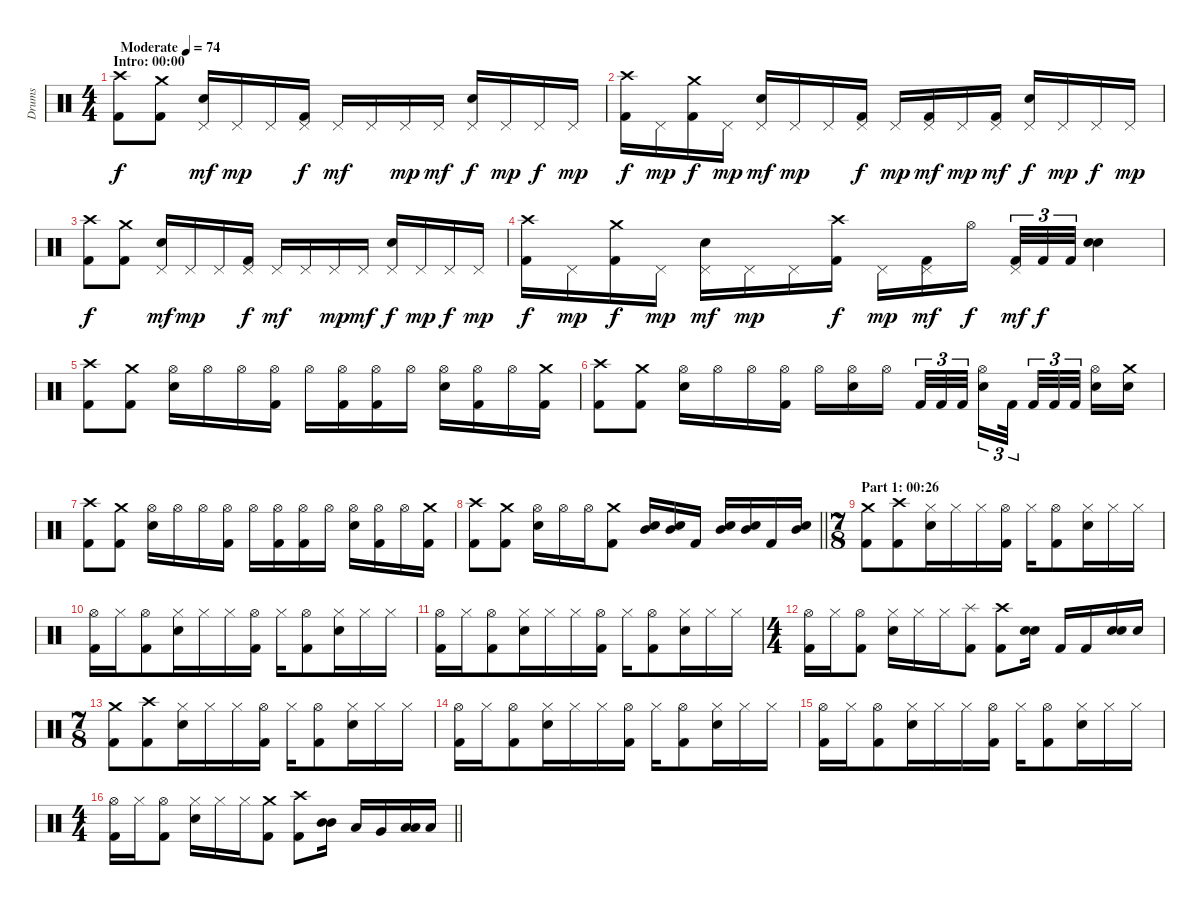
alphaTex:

\track ("Drums" "Drums") {instrument percussion}
\staff {score}
\articulation defaults
\ts (4 4)
\section ("" "Intro: 00:00")
\tempo (74 "Moderate")
\clef neutral
\ks c
("Crash high (hit)" "Kick (hit) 2").8{dy f} ("Crash medium (hit)" "Kick (hit) 2").8 ("Pedal Hi-Hat (hit)" "Electric Snare (hit)").16{dy mf} "Pedal Hi-Hat (hit)".16{dy mp} "Pedal Hi-Hat (hit)".16 ("Pedal Hi-Hat (hit)" "Kick (hit) 2").16{dy f} "Pedal Hi-Hat (hit)".16{dy mf} "Pedal Hi-Hat (hit)".16 "Pedal Hi-Hat (hit)".16{dy mp} "Pedal Hi-Hat (hit)".16{dy mf} ("Pedal Hi-Hat (hit)" "Electric Snare (hit)").16{dy f} "Pedal Hi-Hat (hit)".16{dy mp} "Pedal Hi-Hat (hit)".16{dy f} "Pedal Hi-Hat (hit)".16{dy mp} |
("Crash high (hit)" "Kick (hit) 2").16{dy f} "Pedal Hi-Hat (hit)".16{dy mp} ("Crash medium (hit)" "Kick (hit) 2").16{dy f} "Pedal Hi-Hat (hit)".16{dy mp} ("Pedal Hi-Hat (hit)" "Electric Snare (hit)").16{dy mf} "Pedal Hi-Hat (hit)".16{dy mp} "Pedal Hi-Hat (hit)".16 ("Pedal Hi-Hat (hit)" "Kick (hit) 2").16{dy f} "Pedal Hi-Hat (hit)".16{dy mp} ("Pedal Hi-Hat (hit)" "Kick (hit) 2").16{dy mf} "Pedal Hi-Hat (hit)".16{dy mp} ("Pedal Hi-Hat (hit)" "Kick (hit) 2").16{dy mf} ("Pedal Hi-Hat (hit)" "Electric Snare (hit)").16{dy f} "Pedal Hi-Hat (hit)".16{dy mp} "Pedal Hi-Hat (hit)".16{dy f} "Pedal Hi-Hat (hit)".16{dy mp} |
("Crash high (hit)" "Kick (hit) 2").8{dy f} ("Crash medium (hit)" "Kick (hit) 2").8 ("Pedal Hi-Hat (hit)" "Electric Snare (hit)").16{dy mf} "Pedal Hi-Hat (hit)".16{dy mp} "Pedal Hi-Hat (hit)".16 ("Pedal Hi-Hat (hit)" "Kick (hit) 2").16{dy f} "Pedal Hi-Hat (hit)".16{dy mf} "Pedal Hi-Hat (hit)".16 "Pedal Hi-Hat (hit)".16{dy mp} "Pedal Hi-Hat (hit)".16{dy mf} ("Pedal Hi-Hat (hit)" "Electric Snare (hit)").16{dy f} "Pedal Hi-Hat (hit)".16{dy mp} "Pedal Hi-Hat (hit)".16{dy f} "Pedal Hi-Hat (hit)".16{dy mp} |
("Crash high (hit)" "Kick (hit) 2").16{dy f} "Pedal Hi-Hat (hit)".16{dy mp} ("Crash medium (hit)" "Kick (hit) 2").16{dy f} "Pedal Hi-Hat (hit)".16{dy mp} ("Pedal Hi-Hat (hit)" "Electric Snare (hit)").16{dy mf} "Pedal Hi-Hat (hit)".16{dy mp} "Pedal Hi-Hat (hit)".16 ("Crash high (hit)" "Kick (hit) 2").16{dy f} "Pedal Hi-Hat (hit)".16{dy mp} ("Pedal Hi-Hat (hit)" "Kick (hit) 2").16{dy mf} "Hi-Hat (open)".16{dy f beam splitsecondary} ("Pedal Hi-Hat (hit)" "Kick (hit) 2").32{tu (3 2) dy mf} "Kick (hit) 2".32{tu (3 2) dy f} "Kick (hit) 2".32{tu (3 2)} ("Electric Snare (hit)" "Electric Snare (hit)").4{bd 120} |
("Crash high (hit)" "Kick (hit) 2").8 ("Crash medium (hit)" "Kick (hit) 2").8 ("Hi-Hat (open)" "Electric Snare (hit)").16 "Hi-Hat (open)".16 "Hi-Hat (open)".16 ("Hi-Hat (open)" "Kick (hit) 2").16 "Hi-Hat (open)".16 ("Hi-Hat (open)" "Kick (hit) 2").16 ("Hi-Hat (open)" "Kick (hit) 2").16 "Hi-Hat (open)".16 ("Hi-Hat (open)" "Electric Snare (hit)").16 ("Hi-Hat (open)" "Kick (hit) 2").16 "Hi-Hat (open)".16 ("Crash medium (hit)" "Kick (hit) 2").16 |
("Crash high (hit)" "Kick (hit) 2").8 ("Crash medium (hit)" "Kick (hit) 2").8 ("Hi-Hat (open)" "Electric Snare (hit)").16 "Hi-Hat (open)".16 "Hi-Hat (open)".16 ("Hi-Hat (open)" "Kick (hit) 2").16 "Hi-Hat (open)".16 ("Hi-Hat (open)" "Electric Snare (hit)").16 "Hi-Hat (open)".16{beam splitsecondary} "Kick (hit) 2".32{tu (3 2)} "Kick (hit) 2".32{tu (3 2)} "Kick (hit) 2".32{tu (3 2)} ("Hi-Hat (open)" "Electric Snare (hit)").16{tu (3 2)} "Kick (hit) 2".32{tu (3 2) beam splitsecondary} "Kick (hit) 2".32{tu (3 2)} "Kick (hit) 2".32{tu (3 2)} "Kick (hit) 2".32{tu (3 2) beam splitsecondary} ("Hi-Hat (open)" "Electric Snare (hit)").16 ("Crash medium (hit)" "Electric Snare (hit)").16 |
("Crash high (hit)" "Kick (hit) 2").8 ("Crash medium (hit)" "Kick (hit) 2").8 ("Hi-Hat (open)" "Electric Snare (hit)").16 "Hi-Hat (open)".16 "Hi-Hat (open)".16 ("Hi-Hat (open)" "Kick (hit) 2").16 "Hi-Hat (open)".16 ("Hi-Hat (open)" "Kick (hit) 2").16 ("Hi-Hat (open)" "Kick (hit) 2").16 "Hi-Hat (open)".16 ("Hi-Hat (open)" "Electric Snare (hit)").16 ("Hi-Hat (open)" "Kick (hit) 2").16 "Hi-Hat (open)".16 ("Crash medium (hit)" "Kick (hit) 2").16 |
\barLineRight lightlight
("Crash high (hit)" "Kick (hit) 2").8 ("Crash medium (hit)" "Kick (hit) 2").8 ("Hi-Hat (open)" "Electric Snare (hit)").16 "Hi-Hat (open)".16 "Hi-Hat (open)".16 ("Crash medium (hit)" "Kick (hit) 2").8 ("Mid Tom (hit)" "Electric Snare (hit)").16 ("Mid Tom (hit)" "Electric Snare (hit)").16 "Kick (hit) 2".16 ("Mid Tom (hit)" "Electric Snare (hit)").16 ("Mid Tom (hit)" "Electric Snare (hit)").16 "Kick (hit) 2".16 ("Mid Tom (hit)" "Electric Snare (hit)").16 |
\ts (7 8)
\section ("" "Part 1: 00:26")
("Crash medium (hit)" "Kick (hit) 2").8 ("Crash high (hit)" "Kick (hit) 2").8 ("Hi-Hat (closed)" "Electric Snare (hit)").16 "Hi-Hat (closed)".16 "Hi-Hat (closed)".16 ("Hi-Hat (open)" "Kick (hit) 2").16 "Hi-Hat (closed)".16 ("Hi-Hat (open)" "Kick (hit) 2").8 ("Hi-Hat (closed)" "Electric Snare (hit)").16 "Hi-Hat (closed)".16 "Hi-Hat (closed)".16 |
("Hi-Hat (open)" "Kick (hit) 2").16 "Hi-Hat (closed)".16 ("Hi-Hat (open)" "Kick (hit) 2").8 ("Hi-Hat (closed)" "Electric Snare (hit)").16 "Hi-Hat (closed)".16 "Hi-Hat (closed)".16 ("Hi-Hat (open)" "Kick (hit) 2").16 "Hi-Hat (closed)".16 ("Hi-Hat (open)" "Kick (hit) 2").8 ("Hi-Hat (closed)" "Electric Snare (hit)").16 "Hi-Hat (closed)".16 "Hi-Hat (closed)".16 |
("Hi-Hat (open)" "Kick (hit) 2").16 "Hi-Hat (closed)".16 ("Hi-Hat (open)" "Kick (hit) 2").8 ("Hi-Hat (closed)" "Electric Snare (hit)").16 "Hi-Hat (closed)".16 "Hi-Hat (closed)".16 ("Hi-Hat (open)" "Kick (hit) 2").16 "Hi-Hat (closed)".16 ("Hi-Hat (open)" "Kick (hit) 2").8 ("Hi-Hat (closed)" "Electric Snare (hit)").16 "Hi-Hat (closed)".16 "Hi-Hat (closed)".16 |
\ts (4 4)
("Hi-Hat (open)" "Kick (hit) 2").16 "Hi-Hat (closed)".16 ("Hi-Hat (open)" "Kick (hit) 2").8 ("Hi-Hat (closed)" "Electric Snare (hit)").16 "Hi-Hat (closed)".16 "Hi-Hat (closed)".16 ("Splash (hit)" "Kick (hit) 2").8 ("Crash high (hit)" "Kick (hit) 2").8 ("Electric Snare (hit)" "Electric Snare (hit)").16{bd 120} "Kick (hit) 2".16 "Kick (hit) 2".16 ("Electric Snare (hit)" "Electric Snare (hit)").16{bd 120} "Electric Snare (hit)".16 |
\ts (7 8)
("Crash medium (hit)" "Kick (hit) 2").8 ("Crash high (hit)" "Kick (hit) 2").8 ("Hi-Hat (closed)" "Electric Snare (hit)").16 "Hi-Hat (closed)".16 "Hi-Hat (closed)".16 ("Hi-Hat (open)" "Kick (hit) 2").16 "Hi-Hat (closed)".16 ("Hi-Hat (open)" "Kick (hit) 2").8 ("Hi-Hat (closed)" "Electric Snare (hit)").16 "Hi-Hat (closed)".16 "Hi-Hat (closed)".16 |
("Hi-Hat (open)" "Kick (hit) 2").16 "Hi-Hat (closed)".16 ("Hi-Hat (open)" "Kick (hit) 2").8 ("Hi-Hat (closed)" "Electric Snare (hit)").16 "Hi-Hat (closed)".16 "Hi-Hat (closed)".16 ("Hi-Hat (open)" "Kick (hit) 2").16 "Hi-Hat (closed)".16 ("Hi-Hat (open)" "Kick (hit) 2").8 ("Hi-Hat (closed)" "Electric Snare (hit)").16 "Hi-Hat (closed)".16 "Hi-Hat (closed)".16 |
("Hi-Hat (open)" "Kick (hit) 2").16 "Hi-Hat (closed)".16 ("Hi-Hat (open)" "Kick (hit) 2").8 ("Hi-Hat (closed)" "Electric Snare (hit)").16 "Hi-Hat (closed)".16 "Hi-Hat (closed)".16 ("Hi-Hat (open)" "Kick (hit) 2").16 "Hi-Hat (closed)".16 ("Hi-Hat (open)" "Kick (hit) 2").8 ("Hi-Hat (closed)" "Electric Snare (hit)").16 "Hi-Hat (closed)".16 "Hi-Hat (closed)".16 |
\ts (4 4)
\barLineRight lightlight
("Hi-Hat (open)" "Kick (hit) 2").16 "Hi-Hat (closed)".16 ("Hi-Hat (open)" "Kick (hit) 2").8 ("Hi-Hat (closed)" "Electric Snare (hit)").16 "Hi-Hat (closed)".16 "Hi-Hat (closed)".16 ("Crash medium (hit)" "Kick (hit) 2").8 ("Crash high (hit)" "Kick (hit) 2").8 ("Mid Tom (hit)" "Mid Tom (hit)").16{bd 120} "Low Tom (hit)".16 "Very Low Tom (hit)".16 ("Low Floor Tom (hit)" "Low Floor Tom (hit)").16{bd 60} "Low Floor Tom (hit)".16
